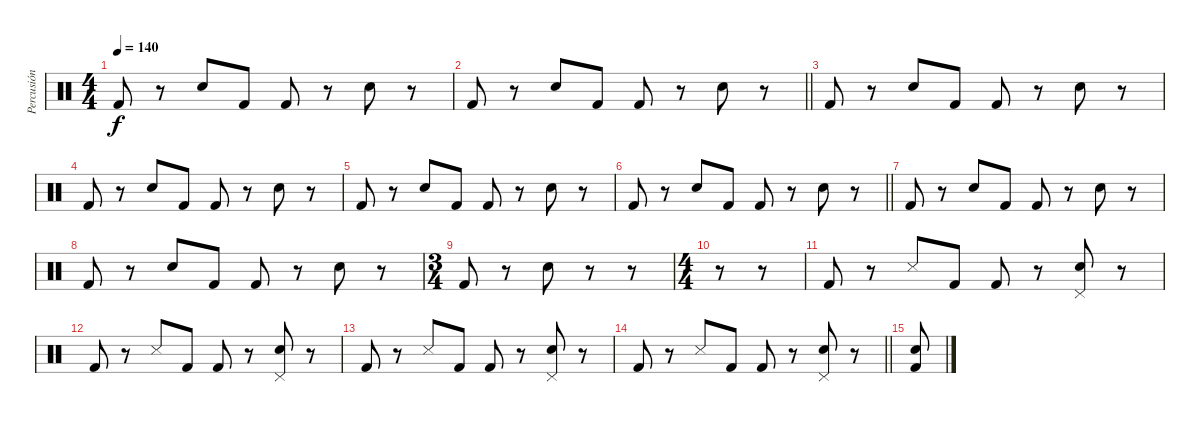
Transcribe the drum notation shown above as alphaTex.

\track ("Percusión" "Percusión") {instrument percussion}
\staff {score}
\articulation defaults
\ts (4 4)
\tempo 140
\clef neutral
\ks c "Kick (hit) 2".8{dy f}
r.8 "Snare (hit) 2".8 "Kick (hit) 2".8 "Kick (hit) 2".8 r.8 "Snare (hit) 2".8 r.8 |
\barLineRight lightlight "Kick (hit) 2".8
r.8 "Snare (hit) 2".8 "Kick (hit) 2".8 "Kick (hit) 2".8 r.8 "Snare (hit) 2".8 r.8 |
"Kick (hit) 2".8 r.8 "Snare (hit) 2".8 "Kick (hit) 2".8 "Kick (hit) 2".8 r.8 "Snare (hit) 2".8 r.8 |
"Kick (hit) 2".8 r.8 "Snare (hit) 2".8 "Kick (hit) 2".8 "Kick (hit) 2".8 r.8 "Snare (hit) 2".8 r.8 |
"Kick (hit) 2".8 r.8 "Snare (hit) 2".8 "Kick (hit) 2".8 "Kick (hit) 2".8 r.8 "Snare (hit) 2".8 r.8 |
\barLineRight lightlight "Kick (hit) 2".8
r.8 "Snare (hit) 2".8 "Kick (hit) 2".8 "Kick (hit) 2".8 r.8 "Snare (hit) 2".8 r.8 |
"Kick (hit) 2".8 r.8 "Snare (hit) 2".8 "Kick (hit) 2".8 "Kick (hit) 2".8 r.8 "Snare (hit) 2".8 r.8 |
"Kick (hit) 2".8 r.8 "Snare (hit) 2".8 "Kick (hit) 2".8 "Kick (hit) 2".8 r.8 "Snare (hit) 2".8 r.8 |
\ts (3 4)
"Kick (hit) 2".8 r.8 "Snare (hit) 2".8 r.8 r.8 |
\ts (4 4)
r.8 r.8 |
"Kick (hit) 2".8 r.8 "Snare (side stick) 3".8 "Kick (hit) 2".8 "Kick (hit) 2".8 r.8 ("Pedal Hi-Hat (hit)" "Snare (hit) 2").8 r.8 |
"Kick (hit) 2".8 r.8 "Snare (side stick) 3".8 "Kick (hit) 2".8 "Kick (hit) 2".8 r.8 ("Pedal Hi-Hat (hit)" "Snare (hit) 2").8 r.8 |
"Kick (hit) 2".8 r.8 "Snare (side stick) 3".8 "Kick (hit) 2".8 "Kick (hit) 2".8 r.8 ("Pedal Hi-Hat (hit)" "Snare (hit) 2").8 r.8 |
\barLineRight lightlight "Kick (hit) 2".8
r.8 "Snare (side stick) 3".8 "Kick (hit) 2".8 "Kick (hit) 2".8 r.8 ("Pedal Hi-Hat (hit)" "Snare (hit) 2").8 r.8 |
("Kick (hit) 2" "Snare (hit) 2").8
